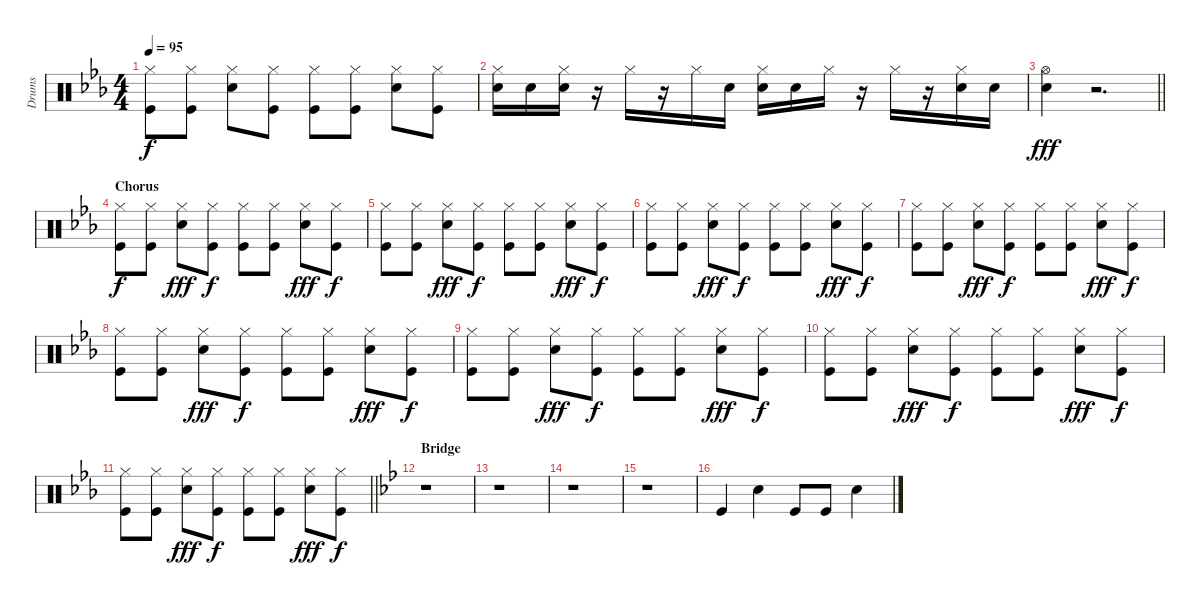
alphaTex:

\track ("Drums" "Drums") {instrument percussion}
\staff {score}
\articulation defaults
\ts (4 4)
\tempo 95
\clef neutral
\ks cminor
("Hi-Hat (closed)" "Kick (hit)").8{dy f} ("Hi-Hat (closed)" "Kick (hit)").8 ("Hi-Hat (closed)" "Electric Snare (hit)").8 ("Hi-Hat (closed)" "Kick (hit)").8 ("Hi-Hat (closed)" "Kick (hit)").8 ("Hi-Hat (closed)" "Kick (hit)").8 ("Hi-Hat (closed)" "Electric Snare (hit)").8 ("Hi-Hat (closed)" "Kick (hit)").8 |
("Hi-Hat (closed)" "Snare (hit) 2").16 "Snare (hit) 2".16 ("Hi-Hat (closed)" "Electric Snare (hit)").16 r.16 "Hi-Hat (closed)".16 r.16 "Hi-Hat (closed)".16 "Snare (hit) 2".16 ("Hi-Hat (closed)" "Snare (hit) 2").16 "Electric Snare (hit)".16 "Hi-Hat (closed)".16 r.16 "Hi-Hat (closed)".16 r.16 ("Hi-Hat (closed)" "Snare (hit) 2").16 "Snare (hit) 2".16 |
\barLineRight lightlight
("Electric Snare (hit)" "Hi-Hat (open)").4{dy fff} r.2{d} |
\section ("" "Chorus")
("Hi-Hat (closed)" "Kick (hit)").8{dy f} ("Hi-Hat (closed)" "Kick (hit)").8 ("Hi-Hat (closed)" "Electric Snare (hit)").8{dy fff} ("Hi-Hat (closed)" "Kick (hit)").8{dy f} ("Hi-Hat (closed)" "Kick (hit)").8 ("Hi-Hat (closed)" "Kick (hit)").8 ("Hi-Hat (closed)" "Electric Snare (hit)").8{dy fff} ("Hi-Hat (closed)" "Kick (hit)").8{dy f} |
("Hi-Hat (closed)" "Kick (hit)").8 ("Hi-Hat (closed)" "Kick (hit)").8 ("Hi-Hat (closed)" "Electric Snare (hit)").8{dy fff} ("Hi-Hat (closed)" "Kick (hit)").8{dy f} ("Hi-Hat (closed)" "Kick (hit)").8 ("Hi-Hat (closed)" "Kick (hit)").8 ("Hi-Hat (closed)" "Electric Snare (hit)").8{dy fff} ("Hi-Hat (closed)" "Kick (hit)").8{dy f} |
("Hi-Hat (closed)" "Kick (hit)").8 ("Hi-Hat (closed)" "Kick (hit)").8 ("Hi-Hat (closed)" "Electric Snare (hit)").8{dy fff} ("Hi-Hat (closed)" "Kick (hit)").8{dy f} ("Hi-Hat (closed)" "Kick (hit)").8 ("Hi-Hat (closed)" "Kick (hit)").8 ("Hi-Hat (closed)" "Electric Snare (hit)").8{dy fff} ("Hi-Hat (closed)" "Kick (hit)").8{dy f} |
("Hi-Hat (closed)" "Kick (hit)").8 ("Hi-Hat (closed)" "Kick (hit)").8 ("Hi-Hat (closed)" "Electric Snare (hit)").8{dy fff} ("Hi-Hat (closed)" "Kick (hit)").8{dy f} ("Hi-Hat (closed)" "Kick (hit)").8 ("Hi-Hat (closed)" "Kick (hit)").8 ("Hi-Hat (closed)" "Electric Snare (hit)").8{dy fff} ("Hi-Hat (closed)" "Kick (hit)").8{dy f} |
("Hi-Hat (closed)" "Kick (hit)").8 ("Hi-Hat (closed)" "Kick (hit)").8 ("Hi-Hat (closed)" "Electric Snare (hit)").8{dy fff} ("Hi-Hat (closed)" "Kick (hit)").8{dy f} ("Hi-Hat (closed)" "Kick (hit)").8 ("Hi-Hat (closed)" "Kick (hit)").8 ("Hi-Hat (closed)" "Electric Snare (hit)").8{dy fff} ("Hi-Hat (closed)" "Kick (hit)").8{dy f} |
("Hi-Hat (closed)" "Kick (hit)").8 ("Hi-Hat (closed)" "Kick (hit)").8 ("Hi-Hat (closed)" "Electric Snare (hit)").8{dy fff} ("Hi-Hat (closed)" "Kick (hit)").8{dy f} ("Hi-Hat (closed)" "Kick (hit)").8 ("Hi-Hat (closed)" "Kick (hit)").8 ("Hi-Hat (closed)" "Electric Snare (hit)").8{dy fff} ("Hi-Hat (closed)" "Kick (hit)").8{dy f} |
("Hi-Hat (closed)" "Kick (hit)").8 ("Hi-Hat (closed)" "Kick (hit)").8 ("Hi-Hat (closed)" "Electric Snare (hit)").8{dy fff} ("Hi-Hat (closed)" "Kick (hit)").8{dy f} ("Hi-Hat (closed)" "Kick (hit)").8 ("Hi-Hat (closed)" "Kick (hit)").8 ("Hi-Hat (closed)" "Electric Snare (hit)").8{dy fff} ("Hi-Hat (closed)" "Kick (hit)").8{dy f} |
\barLineRight lightlight
("Hi-Hat (closed)" "Kick (hit)").8 ("Hi-Hat (closed)" "Kick (hit)").8 ("Hi-Hat (closed)" "Electric Snare (hit)").8{dy fff} ("Hi-Hat (closed)" "Kick (hit)").8{dy f} ("Hi-Hat (closed)" "Kick (hit)").8 ("Hi-Hat (closed)" "Kick (hit)").8 ("Hi-Hat (closed)" "Electric Snare (hit)").8{dy fff} ("Hi-Hat (closed)" "Kick (hit)").8{dy f} |
\section ("" "Bridge")
\ks gminor
r.1 |
r.1 |
r.1 |
r.1 |
"Kick (hit)".4 "Snare (hit) 2".4 "Kick (hit)".8 "Kick (hit)".8 "Snare (hit) 2".4
